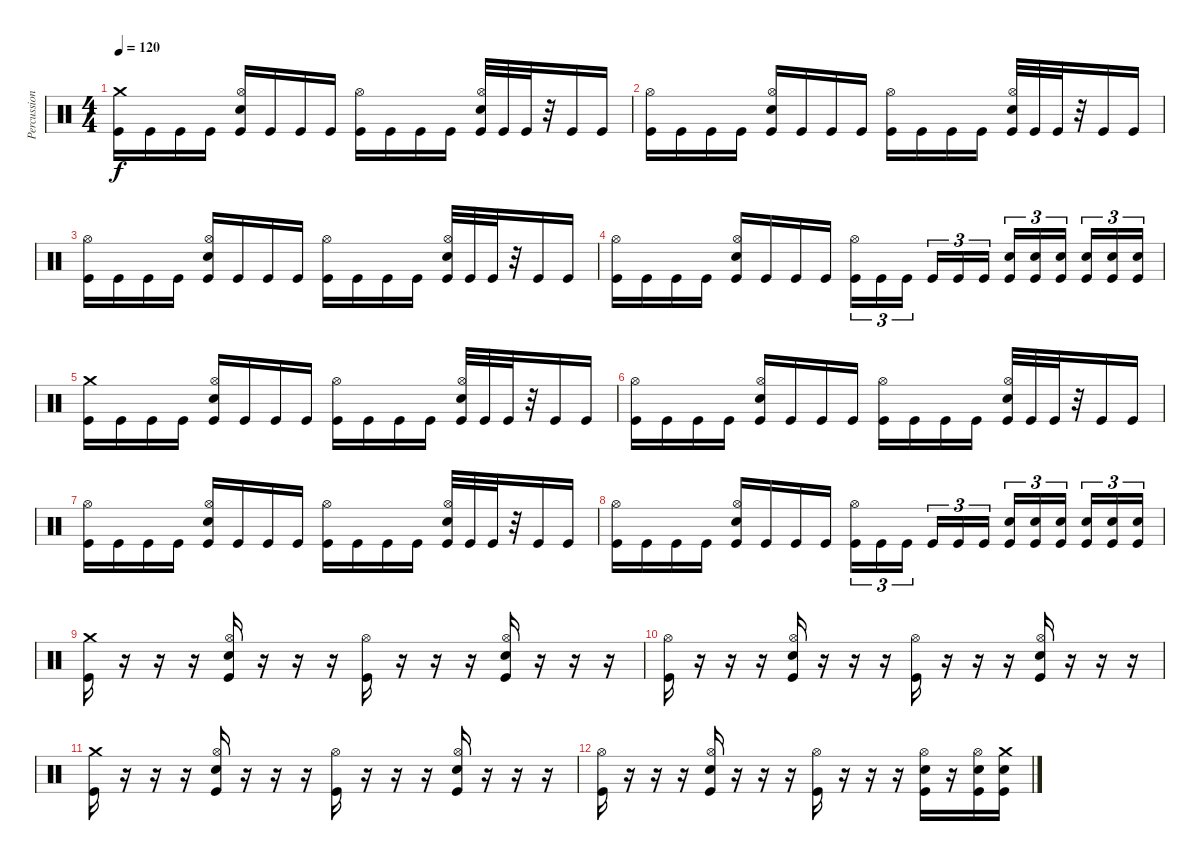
\track ("Percussion" "Percussion") {instrument percussion}
\staff {score}
\articulation defaults
\ts (4 4)
\tempo 120
\clef neutral
\ks c
("Crash medium (hit)" "Kick (hit)").16{dy f} "Kick (hit)".16 "Kick (hit)".16 "Kick (hit)".16 ("Hi-Hat (open)" "Electric Snare (hit)" "Kick (hit)").16 "Kick (hit)".16 "Kick (hit)".16 "Kick (hit)".16 ("Hi-Hat (open)" "Kick (hit)").16 "Kick (hit)".16 "Kick (hit)".16 "Kick (hit)".16 ("Hi-Hat (open)" "Electric Snare (hit)" "Kick (hit)").32 "Kick (hit)".32 "Kick (hit)".32 r.32 "Kick (hit)".16 "Kick (hit)".16 |
("Hi-Hat (open)" "Kick (hit)").16 "Kick (hit)".16 "Kick (hit)".16 "Kick (hit)".16 ("Hi-Hat (open)" "Electric Snare (hit)" "Kick (hit)").16 "Kick (hit)".16 "Kick (hit)".16 "Kick (hit)".16 ("Hi-Hat (open)" "Kick (hit)").16 "Kick (hit)".16 "Kick (hit)".16 "Kick (hit)".16 ("Hi-Hat (open)" "Electric Snare (hit)" "Kick (hit)").32 "Kick (hit)".32 "Kick (hit)".32 r.32 "Kick (hit)".16 "Kick (hit)".16 |
("Hi-Hat (open)" "Kick (hit)").16 "Kick (hit)".16 "Kick (hit)".16 "Kick (hit)".16 ("Hi-Hat (open)" "Electric Snare (hit)" "Kick (hit)").16 "Kick (hit)".16 "Kick (hit)".16 "Kick (hit)".16 ("Hi-Hat (open)" "Kick (hit)").16 "Kick (hit)".16 "Kick (hit)".16 "Kick (hit)".16 ("Hi-Hat (open)" "Electric Snare (hit)" "Kick (hit)").32 "Kick (hit)".32 "Kick (hit)".32 r.32 "Kick (hit)".16 "Kick (hit)".16 |
("Hi-Hat (open)" "Kick (hit)").16 "Kick (hit)".16 "Kick (hit)".16 "Kick (hit)".16 ("Hi-Hat (open)" "Electric Snare (hit)" "Kick (hit)").16 "Kick (hit)".16 "Kick (hit)".16 "Kick (hit)".16 ("Hi-Hat (open)" "Kick (hit)").16{tu (3 2)} "Kick (hit)".16{tu (3 2)} "Kick (hit)".16{tu (3 2)} "Kick (hit)".16{tu (3 2)} "Kick (hit)".16{tu (3 2)} "Kick (hit)".16{tu (3 2)} ("Electric Snare (hit)" "Kick (hit)").16{tu (3 2)} ("Electric Snare (hit)" "Kick (hit)").16{tu (3 2)} ("Electric Snare (hit)" "Kick (hit)").16{tu (3 2)} ("Electric Snare (hit)" "Kick (hit)").16{tu (3 2)} ("Electric Snare (hit)" "Kick (hit)").16{tu (3 2)} ("Electric Snare (hit)" "Kick (hit)").16{tu (3 2)} |
("Crash medium (hit)" "Kick (hit)").16 "Kick (hit)".16 "Kick (hit)".16 "Kick (hit)".16 ("Hi-Hat (open)" "Electric Snare (hit)" "Kick (hit)").16 "Kick (hit)".16 "Kick (hit)".16 "Kick (hit)".16 ("Hi-Hat (open)" "Kick (hit)").16 "Kick (hit)".16 "Kick (hit)".16 "Kick (hit)".16 ("Hi-Hat (open)" "Electric Snare (hit)" "Kick (hit)").32 "Kick (hit)".32 "Kick (hit)".32 r.32 "Kick (hit)".16 "Kick (hit)".16 |
("Hi-Hat (open)" "Kick (hit)").16 "Kick (hit)".16 "Kick (hit)".16 "Kick (hit)".16 ("Hi-Hat (open)" "Electric Snare (hit)" "Kick (hit)").16 "Kick (hit)".16 "Kick (hit)".16 "Kick (hit)".16 ("Hi-Hat (open)" "Kick (hit)").16 "Kick (hit)".16 "Kick (hit)".16 "Kick (hit)".16 ("Hi-Hat (open)" "Electric Snare (hit)" "Kick (hit)").32 "Kick (hit)".32 "Kick (hit)".32 r.32 "Kick (hit)".16 "Kick (hit)".16 |
("Hi-Hat (open)" "Kick (hit)").16 "Kick (hit)".16 "Kick (hit)".16 "Kick (hit)".16 ("Hi-Hat (open)" "Electric Snare (hit)" "Kick (hit)").16 "Kick (hit)".16 "Kick (hit)".16 "Kick (hit)".16 ("Hi-Hat (open)" "Kick (hit)").16 "Kick (hit)".16 "Kick (hit)".16 "Kick (hit)".16 ("Hi-Hat (open)" "Electric Snare (hit)" "Kick (hit)").32 "Kick (hit)".32 "Kick (hit)".32 r.32 "Kick (hit)".16 "Kick (hit)".16 |
("Hi-Hat (open)" "Kick (hit)").16 "Kick (hit)".16 "Kick (hit)".16 "Kick (hit)".16 ("Hi-Hat (open)" "Electric Snare (hit)" "Kick (hit)").16 "Kick (hit)".16 "Kick (hit)".16 "Kick (hit)".16 ("Hi-Hat (open)" "Kick (hit)").16{tu (3 2)} "Kick (hit)".16{tu (3 2)} "Kick (hit)".16{tu (3 2)} "Kick (hit)".16{tu (3 2)} "Kick (hit)".16{tu (3 2)} "Kick (hit)".16{tu (3 2)} ("Electric Snare (hit)" "Kick (hit)").16{tu (3 2)} ("Electric Snare (hit)" "Kick (hit)").16{tu (3 2)} ("Electric Snare (hit)" "Kick (hit)").16{tu (3 2)} ("Electric Snare (hit)" "Kick (hit)").16{tu (3 2)} ("Electric Snare (hit)" "Kick (hit)").16{tu (3 2)} ("Electric Snare (hit)" "Kick (hit)").16{tu (3 2)} |
("Crash medium (hit)" "Kick (hit)").16 r.16 r.16 r.16 ("Hi-Hat (open)" "Electric Snare (hit)" "Kick (hit)").16 r.16 r.16 r.16 ("Hi-Hat (open)" "Kick (hit)").16 r.16 r.16 r.16 ("Hi-Hat (open)" "Electric Snare (hit)" "Kick (hit)").16 r.16 r.16 r.16 |
("Hi-Hat (open)" "Kick (hit)").16 r.16 r.16 r.16 ("Hi-Hat (open)" "Electric Snare (hit)" "Kick (hit)").16 r.16 r.16 r.16 ("Hi-Hat (open)" "Kick (hit)").16 r.16 r.16 r.16 ("Hi-Hat (open)" "Electric Snare (hit)" "Kick (hit)").16 r.16 r.16 r.16 |
("Crash medium (hit)" "Kick (hit)").16 r.16 r.16 r.16 ("Hi-Hat (open)" "Electric Snare (hit)" "Kick (hit)").16 r.16 r.16 r.16 ("Hi-Hat (open)" "Kick (hit)").16 r.16 r.16 r.16 ("Hi-Hat (open)" "Electric Snare (hit)" "Kick (hit)").16 r.16 r.16 r.16 |
("Hi-Hat (open)" "Kick (hit)").16 r.16 r.16 r.16 ("Hi-Hat (open)" "Electric Snare (hit)" "Kick (hit)").16 r.16 r.16 r.16 ("Hi-Hat (open)" "Kick (hit)").16 r.16 r.16 r.16 ("Hi-Hat (open)" "Electric Snare (hit)" "Kick (hit)").16 r.16 ("Hi-Hat (open)" "Electric Snare (hit)" "Kick (hit)").16 ("Crash medium (hit)" "Electric Snare (hit)" "Kick (hit)").16
